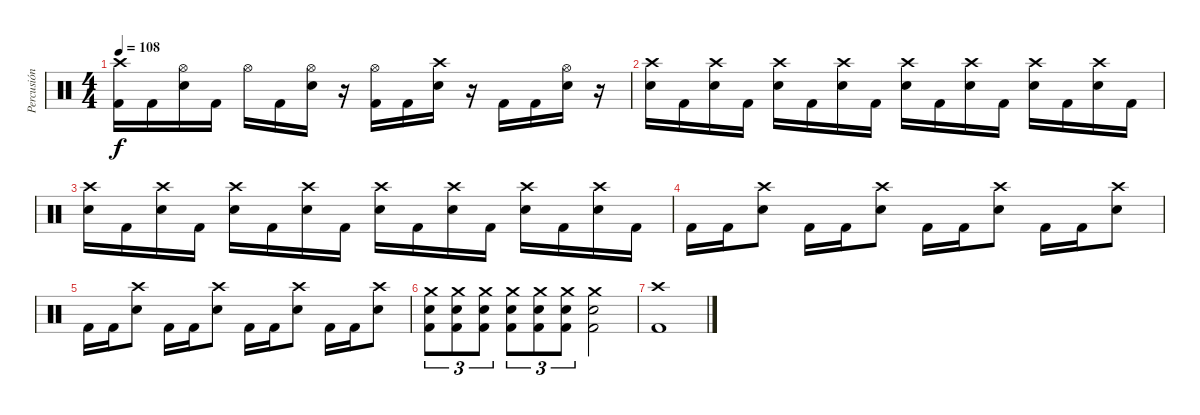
\track ("Percusión" "Percusión") {instrument percussion}
\staff {score}
\articulation defaults
\ts (4 4)
\tempo 108
\clef neutral
\ks c
("Crash high (hit)" "Kick (hit) 2").16{dy f} "Kick (hit) 2".16 ("Hi-Hat (open)" "Electric Snare (hit)").16 "Kick (hit) 2".16 "Hi-Hat (open)".16 "Kick (hit) 2".16 ("Hi-Hat (open)" "Electric Snare (hit)").16 r.16 ("Hi-Hat (open)" "Kick (hit) 2").16 "Kick (hit) 2".16 ("Crash high (hit)" "Electric Snare (hit)").16 r.16 "Kick (hit) 2".16 "Kick (hit) 2".16 ("Hi-Hat (open)" "Electric Snare (hit)").16 r.16 |
("Crash high (hit)" "Electric Snare (hit)").16 "Kick (hit) 2".16 ("Crash high (hit)" "Electric Snare (hit)").16 "Kick (hit) 2".16 ("Crash high (hit)" "Electric Snare (hit)").16 "Kick (hit) 2".16 ("Crash high (hit)" "Electric Snare (hit)").16 "Kick (hit) 2".16 ("Crash high (hit)" "Electric Snare (hit)").16 "Kick (hit) 2".16 ("Crash high (hit)" "Electric Snare (hit)").16 "Kick (hit) 2".16 ("Crash high (hit)" "Electric Snare (hit)").16 "Kick (hit) 2".16 ("Crash high (hit)" "Electric Snare (hit)").16 "Kick (hit) 2".16 |
("Crash high (hit)" "Electric Snare (hit)").16 "Kick (hit) 2".16 ("Crash high (hit)" "Electric Snare (hit)").16 "Kick (hit) 2".16 ("Crash high (hit)" "Electric Snare (hit)").16 "Kick (hit) 2".16 ("Crash high (hit)" "Electric Snare (hit)").16 "Kick (hit) 2".16 ("Crash high (hit)" "Electric Snare (hit)").16 "Kick (hit) 2".16 ("Crash high (hit)" "Electric Snare (hit)").16 "Kick (hit) 2".16 ("Crash high (hit)" "Electric Snare (hit)").16 "Kick (hit) 2".16 ("Crash high (hit)" "Electric Snare (hit)").16 "Kick (hit) 2".16 |
"Kick (hit) 2".16 "Kick (hit) 2".16 ("Crash high (hit)" "Electric Snare (hit)").8 "Kick (hit) 2".16 "Kick (hit) 2".16 ("Crash high (hit)" "Electric Snare (hit)").8 "Kick (hit) 2".16 "Kick (hit) 2".16 ("Crash high (hit)" "Electric Snare (hit)").8 "Kick (hit) 2".16 "Kick (hit) 2".16 ("Crash high (hit)" "Electric Snare (hit)").8 |
"Kick (hit) 2".16 "Kick (hit) 2".16 ("Crash high (hit)" "Electric Snare (hit)").8 "Kick (hit) 2".16 "Kick (hit) 2".16 ("Crash high (hit)" "Electric Snare (hit)").8 "Kick (hit) 2".16 "Kick (hit) 2".16 ("Crash high (hit)" "Electric Snare (hit)").8 "Kick (hit) 2".16 "Kick (hit) 2".16 ("Crash high (hit)" "Electric Snare (hit)").8 |
("Crash medium (hit)" "Electric Snare (hit)" "Kick (hit) 2").8{tu (3 2)} ("Crash medium (hit)" "Electric Snare (hit)" "Kick (hit) 2").8{tu (3 2)} ("Crash medium (hit)" "Electric Snare (hit)" "Kick (hit) 2").8{tu (3 2)} ("Crash medium (hit)" "Electric Snare (hit)" "Kick (hit) 2").8{tu (3 2)} ("Crash medium (hit)" "Electric Snare (hit)" "Kick (hit) 2").8{tu (3 2)} ("Crash medium (hit)" "Electric Snare (hit)" "Kick (hit) 2").8{tu (3 2)} ("Crash medium (hit)" "Electric Snare (hit)" "Kick (hit) 2").2 |
("Crash high (hit)" "Kick (hit) 2").1
